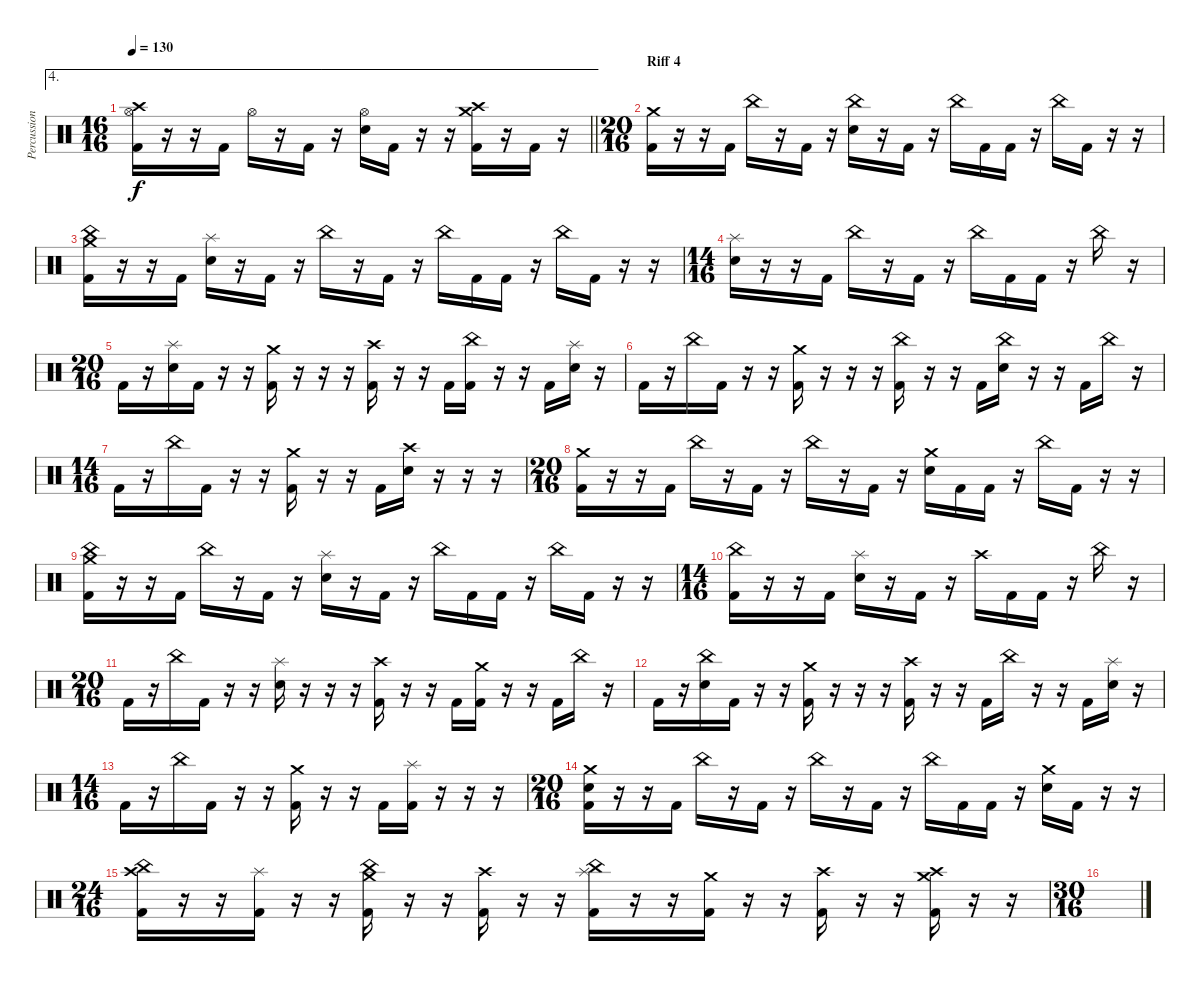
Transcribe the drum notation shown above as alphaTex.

\track ("Percussions" "Percussion") {instrument percussion}
\staff {score}
\articulation defaults
\ae 4
\ts (16 16)
\tempo 130
\clef neutral
\barLineRight lightlight
\ks c
("Crash high (hit)" "Hi-Hat (open)" "Kick (hit) 2").16{dy f} r.16 r.16 "Kick (hit) 2".16 "Hi-Hat (open)".16 r.16 "Kick (hit) 2".16 r.16 ("Hi-Hat (open)" "Electric Snare (hit)").16 "Kick (hit) 2".16 r.16 r.16 ("Crash medium (hit)" "Crash high (hit)" "Kick (hit) 2").16 r.16 "Kick (hit) 2".16 r.16 |
\ts (20 16)
\section ("" "Riff 4")
("Crash medium (hit)" "Kick (hit) 2").16 r.16 r.16 "Kick (hit) 2".16 "China (hit)".16 r.16 "Kick (hit) 2".16 r.16 ("China (hit)" "Electric Snare (hit)").16 r.16 "Kick (hit) 2".16 r.16 "China (hit)".16 "Kick (hit) 2".16 "Kick (hit) 2".16 r.16 "China (hit)".16 "Kick (hit) 2".16 r.16 r.16 |
("Crash medium (hit)" "China (hit)" "Kick (hit) 2").16 r.16 r.16 "Kick (hit) 2".16 ("Splash (hit)" "Electric Snare (hit)").16 r.16 "Kick (hit) 2".16 r.16 "China (hit)".16 r.16 "Kick (hit) 2".16 r.16 "China (hit)".16 "Kick (hit) 2".16 "Kick (hit) 2".16 r.16 "China (hit)".16 "Kick (hit) 2".16 r.16 r.16 |
\ts (14 16)
("Splash (hit)" "Electric Snare (hit)").16 r.16 r.16 "Kick (hit) 2".16 "China (hit)".16 r.16 "Kick (hit) 2".16 r.16 "China (hit)".16 "Kick (hit) 2".16 "Kick (hit) 2".16 r.16 "China (hit)".16 r.16 |
\ts (20 16)
"Kick (hit) 2".16 r.16 ("Splash (hit)" "Electric Snare (hit)").16 "Kick (hit) 2".16 r.16 r.16 ("Crash medium (hit)" "Kick (hit) 2").16 r.16 r.16 r.16 ("Crash high (hit)" "Kick (hit) 2").16 r.16 r.16 "Kick (hit) 2".16 ("China (hit)" "Kick (hit) 2").16 r.16 r.16 "Kick (hit) 2".16 ("Splash (hit)" "Electric Snare (hit)").16 r.16 |
"Kick (hit) 2".16 r.16 "China (hit)".16 "Kick (hit) 2".16 r.16 r.16 ("Crash medium (hit)" "Kick (hit) 2").16 r.16 r.16 r.16 ("China (hit)" "Kick (hit) 2").16 r.16 r.16 "Kick (hit) 2".16 ("China (hit)" "Electric Snare (hit)").16 r.16 r.16 "Kick (hit) 2".16 "China (hit)".16 r.16 |
\ts (14 16)
"Kick (hit) 2".16 r.16 "China (hit)".16 "Kick (hit) 2".16 r.16 r.16 ("Crash medium (hit)" "Kick (hit) 2").16 r.16 r.16 "Kick (hit) 2".16 ("Crash high (hit)" "Electric Snare (hit)").16 r.16 r.16 r.16 |
\ts (20 16)
("Crash medium (hit)" "Kick (hit) 2").16 r.16 r.16 "Kick (hit) 2".16 "China (hit)".16 r.16 "Kick (hit) 2".16 r.16 "China (hit)".16 r.16 "Kick (hit) 2".16 r.16 ("Crash medium (hit)" "Electric Snare (hit)").16 "Kick (hit) 2".16 "Kick (hit) 2".16 r.16 "China (hit)".16 "Kick (hit) 2".16 r.16 r.16 |
("Crash medium (hit)" "China (hit)" "Kick (hit) 2").16 r.16 r.16 "Kick (hit) 2".16 "China (hit)".16 r.16 "Kick (hit) 2".16 r.16 ("Splash (hit)" "Electric Snare (hit)").16 r.16 "Kick (hit) 2".16 r.16 "China (hit)".16 "Kick (hit) 2".16 "Kick (hit) 2".16 r.16 "China (hit)".16 "Kick (hit) 2".16 r.16 r.16 |
\ts (14 16)
("China (hit)" "Kick (hit) 2").16 r.16 r.16 "Kick (hit) 2".16 ("Splash (hit)" "Electric Snare (hit)").16 r.16 "Kick (hit) 2".16 r.16 "Crash high (hit)".16 "Kick (hit) 2".16 "Kick (hit) 2".16 r.16 "China (hit)".16 r.16 |
\ts (20 16)
"Kick (hit) 2".16 r.16 "China (hit)".16 "Kick (hit) 2".16 r.16 r.16 ("Splash (hit)" "Electric Snare (hit)").16 r.16 r.16 r.16 ("Crash high (hit)" "Kick (hit) 2").16 r.16 r.16 "Kick (hit) 2".16 ("Crash medium (hit)" "Kick (hit) 2").16 r.16 r.16 "Kick (hit) 2".16 "China (hit)".16 r.16 |
"Kick (hit) 2".16 r.16 ("China (hit)" "Electric Snare (hit)").16 "Kick (hit) 2".16 r.16 r.16 ("Crash medium (hit)" "Kick (hit) 2").16 r.16 r.16 r.16 ("Crash high (hit)" "Kick (hit) 2").16 r.16 r.16 "Kick (hit) 2".16 "China (hit)".16 r.16 r.16 "Kick (hit) 2".16 ("Splash (hit)" "Electric Snare (hit)").16 r.16 |
\ts (14 16)
"Kick (hit) 2".16 r.16 "China (hit)".16 "Kick (hit) 2".16 r.16 r.16 ("Crash medium (hit)" "Kick (hit) 2").16 r.16 r.16 "Kick (hit) 2".16 ("Splash (hit)" "Kick (hit) 2").16 r.16 r.16 r.16 |
\ts (20 16)
("Crash medium (hit)" "Electric Snare (hit)" "Kick (hit) 2").16 r.16 r.16 "Kick (hit) 2".16 "China (hit)".16 r.16 "Kick (hit) 2".16 r.16 "China (hit)".16 r.16 "Kick (hit) 2".16 r.16 "China (hit)".16 "Kick (hit) 2".16 "Kick (hit) 2".16 r.16 ("Crash medium (hit)" "Electric Snare (hit)").16 "Kick (hit) 2".16 r.16 r.16 |
\ts (24 16)
("Crash high (hit)" "China (hit)" "Kick (hit) 2").16 r.16 r.16 ("Splash (hit)" "Kick (hit) 2").16 r.16 r.16 ("China (hit)" "Crash medium (hit)" "Kick (hit) 2").16 r.16 r.16 ("Crash high (hit)" "Kick (hit) 2").16 r.16 r.16 ("China (hit)" "Splash (hit)" "Kick (hit) 2").16 r.16 r.16 ("Crash medium (hit)" "Kick (hit) 2").16 r.16 r.16 ("Crash high (hit)" "Kick (hit) 2").16 r.16 r.16 ("Crash high (hit)" "Crash medium (hit)" "Kick (hit) 2").16 r.16 r.16 |
\ts (30 16)
